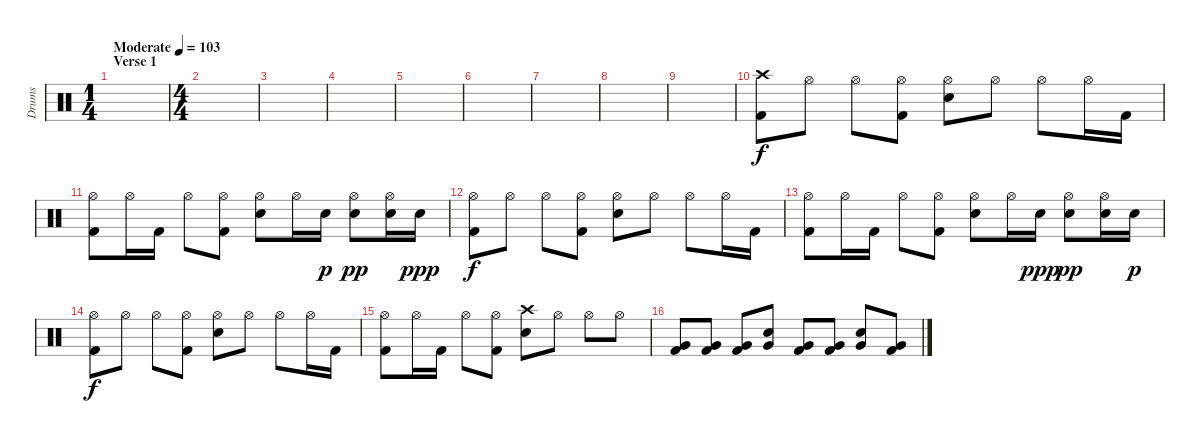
\track ("Drums" "Drums") {instrument percussion}
\staff {score}
\articulation defaults
\ts (1 4)
\section ("" "Verse 1")
\tempo (103 "Moderate")
\clef neutral
\ks c
|
\ts (4 4)
|
|
|
|
|
|
|
|
("Kick (hit) 2" "Crash high (hit)").8 "Hi-Hat (open)".8 "Hi-Hat (open)".8 ("Hi-Hat (open)" "Kick (hit) 2").8 ("Hi-Hat (open)" "Snare (hit) 2").8 "Hi-Hat (open)".8 "Hi-Hat (open)".8 "Hi-Hat (open)".16 "Kick (hit) 2".16 |
("Hi-Hat (open)" "Kick (hit) 2").8 "Hi-Hat (open)".16 "Kick (hit) 2".16 "Hi-Hat (open)".8 ("Hi-Hat (open)" "Kick (hit) 2").8 ("Hi-Hat (open)" "Snare (hit) 2").8 "Hi-Hat (open)".16 "Snare (hit) 2".16{dy p} ("Hi-Hat (open)" "Snare (hit) 2").8{dy pp} ("Hi-Hat (open)" "Snare (hit) 2").16 "Snare (hit) 2".16{dy ppp} |
("Hi-Hat (open)" "Kick (hit) 2").8{dy f} "Hi-Hat (open)".8 "Hi-Hat (open)".8 ("Hi-Hat (open)" "Kick (hit) 2").8 ("Hi-Hat (open)" "Snare (hit) 2").8 "Hi-Hat (open)".8 "Hi-Hat (open)".8 "Hi-Hat (open)".16 "Kick (hit) 2".16 |
("Hi-Hat (open)" "Kick (hit) 2").8 "Hi-Hat (open)".16 "Kick (hit) 2".16 "Hi-Hat (open)".8 ("Hi-Hat (open)" "Kick (hit) 2").8 ("Hi-Hat (open)" "Snare (hit) 2").8 "Hi-Hat (open)".16 "Snare (hit) 2".16{dy ppp} ("Hi-Hat (open)" "Snare (hit) 2").8{dy pp} ("Hi-Hat (open)" "Snare (hit) 2").16 "Snare (hit) 2".16{dy p} |
("Hi-Hat (open)" "Kick (hit) 2").8{dy f} "Hi-Hat (open)".8 "Hi-Hat (open)".8 ("Hi-Hat (open)" "Kick (hit) 2").8 ("Hi-Hat (open)" "Snare (hit) 2").8 "Hi-Hat (open)".8 "Hi-Hat (open)".8 "Hi-Hat (open)".16 "Kick (hit) 2".16 |
("Hi-Hat (open)" "Kick (hit) 2").8 "Hi-Hat (open)".16 "Kick (hit) 2".16 "Hi-Hat (open)".8 ("Hi-Hat (open)" "Kick (hit) 2").8 ("Crash high (hit)" "Snare (hit) 2").8 "Hi-Hat (open)".8 "Hi-Hat (open)".8 "Hi-Hat (open)".8 |
("Kick (hit) 2" "Very Low Tom (hit)").8 ("Kick (hit) 2" "Very Low Tom (hit)").8 ("Kick (hit) 2" "Very Low Tom (hit)").8 ("Snare (hit) 2" "Very Low Tom (hit)").8 ("Kick (hit) 2" "Very Low Tom (hit)").8 ("Kick (hit) 2" "Very Low Tom (hit)").8 ("Snare (hit) 2" "Very Low Tom (hit)").8 ("Kick (hit) 2" "Very Low Tom (hit)").8
